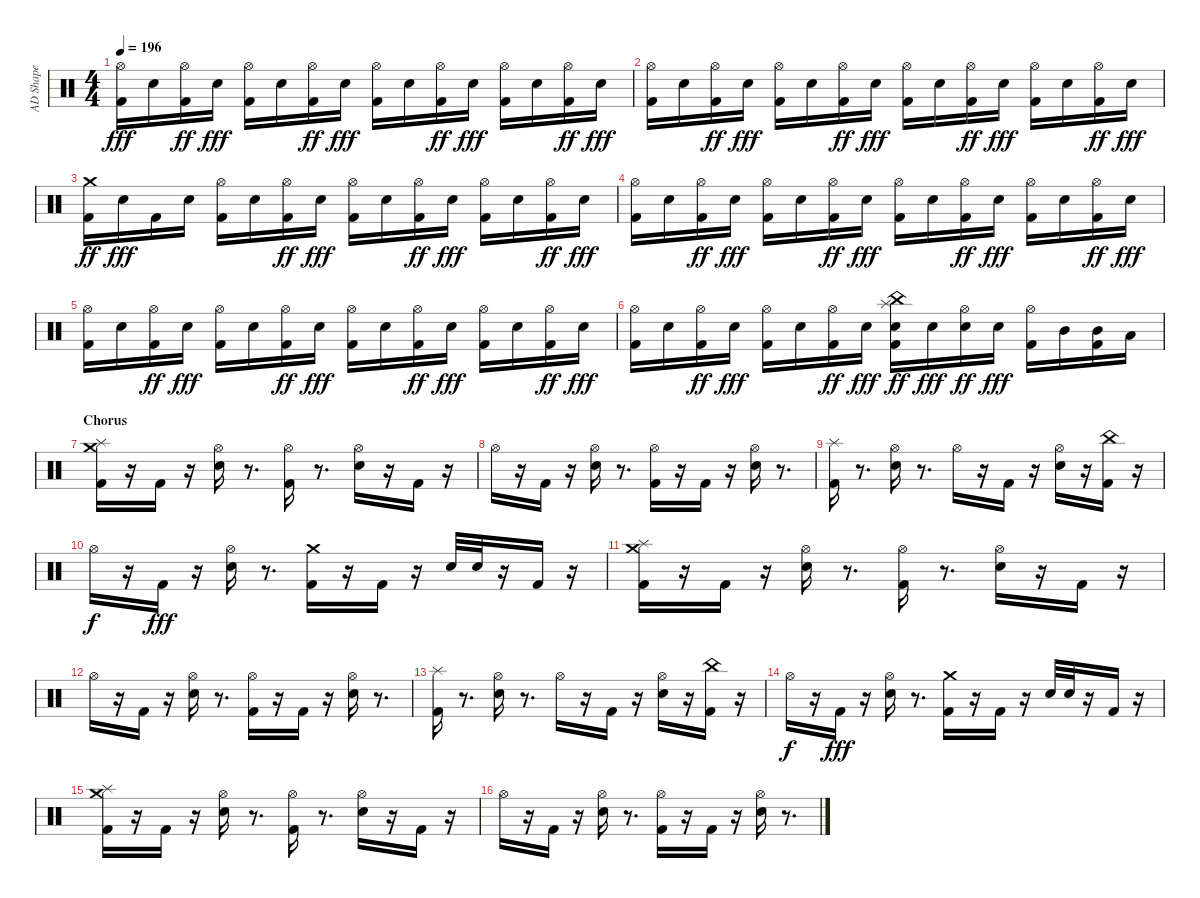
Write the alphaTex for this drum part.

\track ("AD Shape" "AD Shape") {instrument percussion}
\staff {score}
\articulation defaults
\ts (4 4)
\tempo 196
\clef neutral
\ks c
("Kick (hit) 2" "Hi-Hat (open)").16{dy fff} "Snare (hit) 2".16 ("Kick (hit) 2" "Hi-Hat (open)").16{dy ff} "Snare (hit) 2".16{dy fff} ("Kick (hit) 2" "Hi-Hat (open)").16 "Snare (hit) 2".16 ("Kick (hit) 2" "Hi-Hat (open)").16{dy ff} "Snare (hit) 2".16{dy fff} ("Kick (hit) 2" "Hi-Hat (open)").16 "Snare (hit) 2".16 ("Kick (hit) 2" "Hi-Hat (open)").16{dy ff} "Snare (hit) 2".16{dy fff} ("Kick (hit) 2" "Hi-Hat (open)").16 "Snare (hit) 2".16 ("Kick (hit) 2" "Hi-Hat (open)").16{dy ff} "Snare (hit) 2".16{dy fff} |
("Kick (hit) 2" "Hi-Hat (open)").16 "Snare (hit) 2".16 ("Kick (hit) 2" "Hi-Hat (open)").16{dy ff} "Snare (hit) 2".16{dy fff} ("Kick (hit) 2" "Hi-Hat (open)").16 "Snare (hit) 2".16 ("Kick (hit) 2" "Hi-Hat (open)").16{dy ff} "Snare (hit) 2".16{dy fff} ("Kick (hit) 2" "Hi-Hat (open)").16 "Snare (hit) 2".16 ("Kick (hit) 2" "Hi-Hat (open)").16{dy ff} "Snare (hit) 2".16{dy fff} ("Kick (hit) 2" "Hi-Hat (open)").16 "Snare (hit) 2".16 ("Kick (hit) 2" "Hi-Hat (open)").16{dy ff} "Snare (hit) 2".16{dy fff} |
("Kick (hit) 2" "Crash medium (hit)").16{dy ff} "Snare (hit) 2".16{dy fff} "Kick (hit) 2".16 "Snare (hit) 2".16 ("Kick (hit) 2" "Hi-Hat (open)").16 "Snare (hit) 2".16 ("Kick (hit) 2" "Hi-Hat (open)").16{dy ff} "Snare (hit) 2".16{dy fff} ("Kick (hit) 2" "Hi-Hat (open)").16 "Snare (hit) 2".16 ("Kick (hit) 2" "Hi-Hat (open)").16{dy ff} "Snare (hit) 2".16{dy fff} ("Kick (hit) 2" "Hi-Hat (open)").16 "Snare (hit) 2".16 ("Kick (hit) 2" "Hi-Hat (open)").16{dy ff} "Snare (hit) 2".16{dy fff} |
("Kick (hit) 2" "Hi-Hat (open)").16 "Snare (hit) 2".16 ("Kick (hit) 2" "Hi-Hat (open)").16{dy ff} "Snare (hit) 2".16{dy fff} ("Kick (hit) 2" "Hi-Hat (open)").16 "Snare (hit) 2".16 ("Kick (hit) 2" "Hi-Hat (open)").16{dy ff} "Snare (hit) 2".16{dy fff} ("Kick (hit) 2" "Hi-Hat (open)").16 "Snare (hit) 2".16 ("Kick (hit) 2" "Hi-Hat (open)").16{dy ff} "Snare (hit) 2".16{dy fff} ("Kick (hit) 2" "Hi-Hat (open)").16 "Snare (hit) 2".16 ("Kick (hit) 2" "Hi-Hat (open)").16{dy ff} "Snare (hit) 2".16{dy fff} |
("Kick (hit) 2" "Hi-Hat (open)").16 "Snare (hit) 2".16 ("Kick (hit) 2" "Hi-Hat (open)").16{dy ff} "Snare (hit) 2".16{dy fff} ("Kick (hit) 2" "Hi-Hat (open)").16 "Snare (hit) 2".16 ("Kick (hit) 2" "Hi-Hat (open)").16{dy ff} "Snare (hit) 2".16{dy fff} ("Kick (hit) 2" "Hi-Hat (open)").16 "Snare (hit) 2".16 ("Kick (hit) 2" "Hi-Hat (open)").16{dy ff} "Snare (hit) 2".16{dy fff} ("Kick (hit) 2" "Hi-Hat (open)").16 "Snare (hit) 2".16 ("Kick (hit) 2" "Hi-Hat (open)").16{dy ff} "Snare (hit) 2".16{dy fff} |
("Kick (hit) 2" "Hi-Hat (open)").16 "Snare (hit) 2".16 ("Kick (hit) 2" "Hi-Hat (open)").16{dy ff} "Snare (hit) 2".16{dy fff} ("Kick (hit) 2" "Hi-Hat (open)").16 "Snare (hit) 2".16 ("Kick (hit) 2" "Hi-Hat (open)").16{dy ff} "Snare (hit) 2".16{dy fff} ("Kick (hit) 2" "Snare (hit) 2" "Splash (hit)" "China (hit)").16{dy ff} "Snare (hit) 2".16{dy fff} ("Snare (hit) 2" "Hi-Hat (open)").16{dy ff} "Snare (hit) 2".16{dy fff} ("Kick (hit) 2" "Hi-Hat (open)").16 "Mid Tom (hit)".16 ("Kick (hit) 2" "Mid Tom (hit)").16 "Low Tom (hit)".16 |
\section ("" "Chorus")
("Kick (hit) 2" "Splash (hit)" "Crash medium (hit)").16 r.16 "Kick (hit) 2".16 r.16 ("Snare (hit) 2" "Hi-Hat (open)").16 r.8{d} ("Kick (hit) 2" "Hi-Hat (open)").16 r.8{d} ("Snare (hit) 2" "Hi-Hat (open)").16 r.16 "Kick (hit) 2".16 r.16 |
"Hi-Hat (open)".16 r.16 "Kick (hit) 2".16 r.16 ("Snare (hit) 2" "Hi-Hat (open)").16 r.8{d} ("Kick (hit) 2" "Hi-Hat (open)").16 r.16 "Kick (hit) 2".16 r.16 ("Snare (hit) 2" "Hi-Hat (open)").16 r.8{d} |
("Kick (hit) 2" "Splash (hit)").16 r.8{d} ("Snare (hit) 2" "Hi-Hat (open)").16 r.8{d} "Hi-Hat (open)".16 r.16 "Kick (hit) 2".16 r.16 ("Snare (hit) 2" "Hi-Hat (open)").16 r.16 ("Kick (hit) 2" "China (hit)").16 r.16 |
"Hi-Hat (open)".16{dy f} r.16 "Kick (hit) 2".16{dy fff} r.16 ("Snare (hit) 2" "Hi-Hat (open)").16 r.8{d} ("Kick (hit) 2" "Crash medium (hit)").16 r.16 "Kick (hit) 2".16 r.16 "Snare (hit) 2".32 "Snare (hit) 2".32 r.16 "Kick (hit) 2".16 r.16 |
("Kick (hit) 2" "Splash (hit)" "Crash medium (hit)").16 r.16 "Kick (hit) 2".16 r.16 ("Snare (hit) 2" "Hi-Hat (open)").16 r.8{d} ("Kick (hit) 2" "Hi-Hat (open)").16 r.8{d} ("Snare (hit) 2" "Hi-Hat (open)").16 r.16 "Kick (hit) 2".16 r.16 |
"Hi-Hat (open)".16 r.16 "Kick (hit) 2".16 r.16 ("Snare (hit) 2" "Hi-Hat (open)").16 r.8{d} ("Kick (hit) 2" "Hi-Hat (open)").16 r.16 "Kick (hit) 2".16 r.16 ("Snare (hit) 2" "Hi-Hat (open)").16 r.8{d} |
("Kick (hit) 2" "Splash (hit)").16 r.8{d} ("Snare (hit) 2" "Hi-Hat (open)").16 r.8{d} "Hi-Hat (open)".16 r.16 "Kick (hit) 2".16 r.16 ("Snare (hit) 2" "Hi-Hat (open)").16 r.16 ("Kick (hit) 2" "China (hit)").16 r.16 |
"Hi-Hat (open)".16{dy f} r.16 "Kick (hit) 2".16{dy fff} r.16 ("Snare (hit) 2" "Hi-Hat (open)").16 r.8{d} ("Kick (hit) 2" "Crash medium (hit)").16 r.16 "Kick (hit) 2".16 r.16 "Snare (hit) 2".32 "Snare (hit) 2".32 r.16 "Kick (hit) 2".16 r.16 |
("Kick (hit) 2" "Splash (hit)" "Crash medium (hit)").16 r.16 "Kick (hit) 2".16 r.16 ("Snare (hit) 2" "Hi-Hat (open)").16 r.8{d} ("Kick (hit) 2" "Hi-Hat (open)").16 r.8{d} ("Snare (hit) 2" "Hi-Hat (open)").16 r.16 "Kick (hit) 2".16 r.16 |
"Hi-Hat (open)".16 r.16 "Kick (hit) 2".16 r.16 ("Snare (hit) 2" "Hi-Hat (open)").16 r.8{d} ("Kick (hit) 2" "Hi-Hat (open)").16 r.16 "Kick (hit) 2".16 r.16 ("Snare (hit) 2" "Hi-Hat (open)").16 r.8{d}
